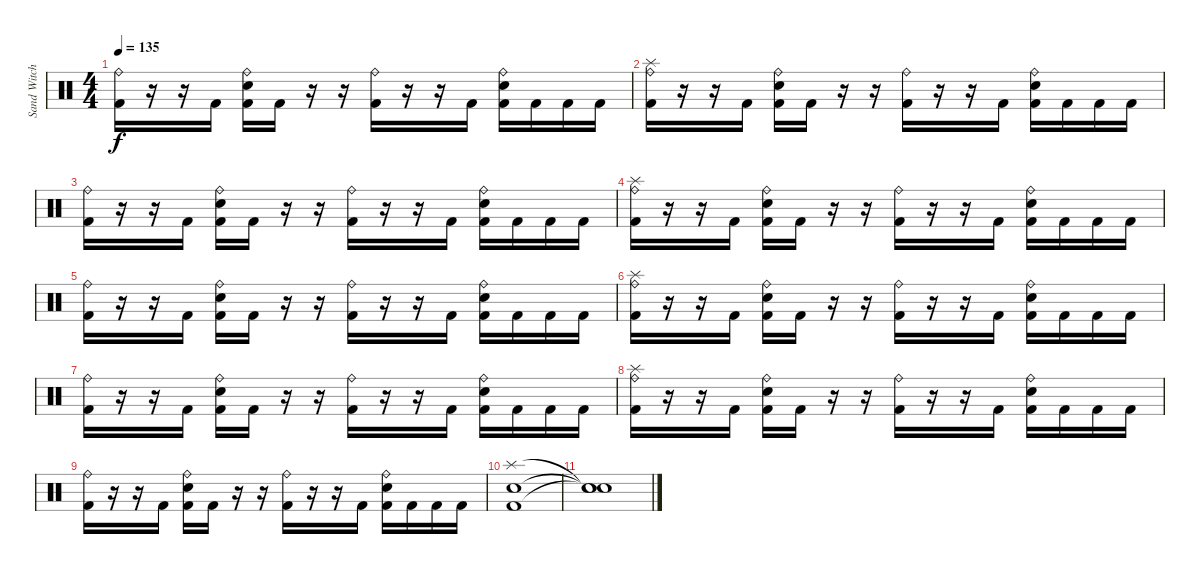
\track ("Sand Witch" "Sand Witch") {instrument percussion}
\staff {score}
\articulation defaults
\ts (4 4)
\tempo 135
\clef neutral
\ks c
("Ride (bell)" "Kick (hit) 2").16{dy f} r.16 r.16 "Kick (hit) 2".16 ("Ride (bell)" "Snare (hit) 2" "Kick (hit) 2").16 "Kick (hit) 2".16 r.16 r.16 ("Ride (bell)" "Kick (hit) 2").16 r.16 r.16 "Kick (hit) 2".16 ("Ride (bell)" "Snare (hit) 2" "Kick (hit) 2").16 "Kick (hit) 2".16 "Kick (hit) 2".16 "Kick (hit) 2".16 |
("Ride (bell)" "Splash (hit)" "Kick (hit) 2").16 r.16 r.16 "Kick (hit) 2".16 ("Ride (bell)" "Snare (hit) 2" "Kick (hit) 2").16 "Kick (hit) 2".16 r.16 r.16 ("Ride (bell)" "Kick (hit) 2").16 r.16 r.16 "Kick (hit) 2".16 ("Ride (bell)" "Snare (hit) 2" "Kick (hit) 2").16 "Kick (hit) 2".16 "Kick (hit) 2".16 "Kick (hit) 2".16 |
("Ride (bell)" "Kick (hit) 2").16 r.16 r.16 "Kick (hit) 2".16 ("Ride (bell)" "Snare (hit) 2" "Kick (hit) 2").16 "Kick (hit) 2".16 r.16 r.16 ("Ride (bell)" "Kick (hit) 2").16 r.16 r.16 "Kick (hit) 2".16 ("Ride (bell)" "Snare (hit) 2" "Kick (hit) 2").16 "Kick (hit) 2".16 "Kick (hit) 2".16 "Kick (hit) 2".16 |
("Ride (bell)" "Splash (hit)" "Kick (hit) 2").16 r.16 r.16 "Kick (hit) 2".16 ("Ride (bell)" "Snare (hit) 2" "Kick (hit) 2").16 "Kick (hit) 2".16 r.16 r.16 ("Ride (bell)" "Kick (hit) 2").16 r.16 r.16 "Kick (hit) 2".16 ("Ride (bell)" "Snare (hit) 2" "Kick (hit) 2").16 "Kick (hit) 2".16 "Kick (hit) 2".16 "Kick (hit) 2".16 |
("Ride (bell)" "Kick (hit) 2").16 r.16 r.16 "Kick (hit) 2".16 ("Ride (bell)" "Snare (hit) 2" "Kick (hit) 2").16 "Kick (hit) 2".16 r.16 r.16 ("Ride (bell)" "Kick (hit) 2").16 r.16 r.16 "Kick (hit) 2".16 ("Ride (bell)" "Snare (hit) 2" "Kick (hit) 2").16 "Kick (hit) 2".16 "Kick (hit) 2".16 "Kick (hit) 2".16 |
("Ride (bell)" "Splash (hit)" "Kick (hit) 2").16 r.16 r.16 "Kick (hit) 2".16 ("Ride (bell)" "Snare (hit) 2" "Kick (hit) 2").16 "Kick (hit) 2".16 r.16 r.16 ("Ride (bell)" "Kick (hit) 2").16 r.16 r.16 "Kick (hit) 2".16 ("Ride (bell)" "Snare (hit) 2" "Kick (hit) 2").16 "Kick (hit) 2".16 "Kick (hit) 2".16 "Kick (hit) 2".16 |
("Ride (bell)" "Kick (hit) 2").16 r.16 r.16 "Kick (hit) 2".16 ("Ride (bell)" "Snare (hit) 2" "Kick (hit) 2").16 "Kick (hit) 2".16 r.16 r.16 ("Ride (bell)" "Kick (hit) 2").16 r.16 r.16 "Kick (hit) 2".16 ("Ride (bell)" "Snare (hit) 2" "Kick (hit) 2").16 "Kick (hit) 2".16 "Kick (hit) 2".16 "Kick (hit) 2".16 |
("Ride (bell)" "Splash (hit)" "Kick (hit) 2").16 r.16 r.16 "Kick (hit) 2".16 ("Ride (bell)" "Snare (hit) 2" "Kick (hit) 2").16 "Kick (hit) 2".16 r.16 r.16 ("Ride (bell)" "Kick (hit) 2").16 r.16 r.16 "Kick (hit) 2".16 ("Ride (bell)" "Snare (hit) 2" "Kick (hit) 2").16 "Kick (hit) 2".16 "Kick (hit) 2".16 "Kick (hit) 2".16 |
("Ride (bell)" "Kick (hit) 2").16 r.16 r.16 "Kick (hit) 2".16 ("Ride (bell)" "Snare (hit) 2" "Kick (hit) 2").16 "Kick (hit) 2".16 r.16 r.16 ("Ride (bell)" "Kick (hit) 2").16 r.16 r.16 "Kick (hit) 2".16 ("Ride (bell)" "Snare (hit) 2" "Kick (hit) 2").16 "Kick (hit) 2".16 "Kick (hit) 2".16 "Kick (hit) 2".16 |
("Splash (hit)" "Snare (hit) 2" "Kick (hit) 2").1 |
("Snare (hit)"{t} "Snare (hit)"{t} "Snare (hit)"{t}).1
